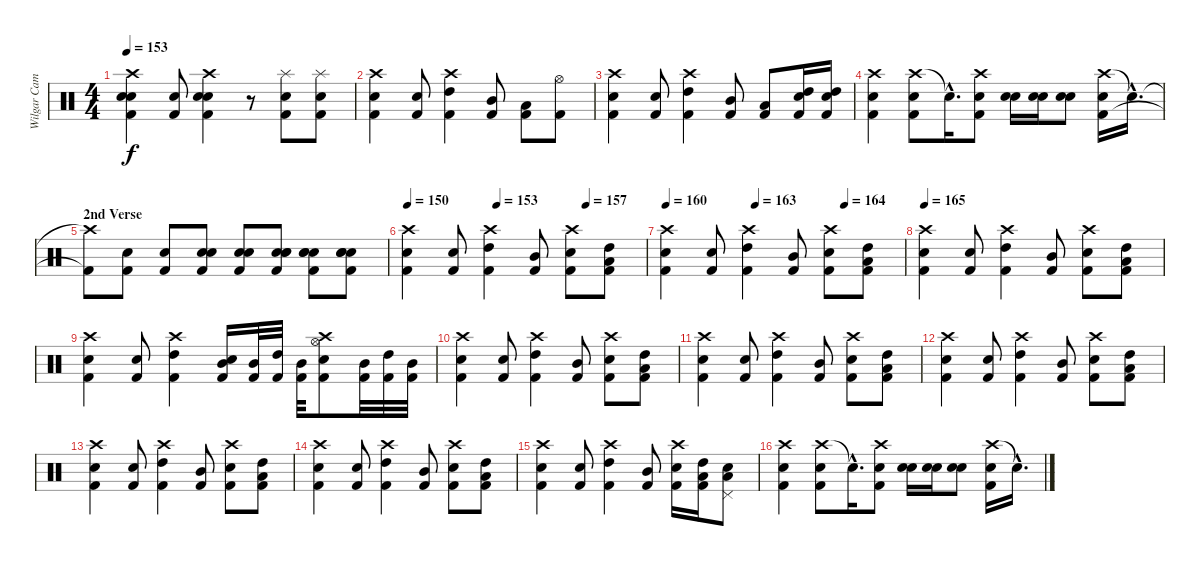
\track ("Wilgar Campbell" "Wilgar Cam") {instrument percussion}
\staff {score}
\articulation defaults
\ts (4 4)
\tempo 153
\clef neutral
\ks c
("Crash high (hit)" "Snare (hit) 2" "Snare (hit) 2" "Kick (hit) 2").4{dy f} ("Electric Snare (hit)" "Kick (hit) 2").8 ("Crash high (hit)" "Snare (hit) 2" "Snare (hit) 2" "Kick (hit) 2").4 r.8 ("Splash (hit)" "Kick (hit) 2" "Electric Snare (hit)").8 ("Splash (hit)" "Snare (hit) 2" "Kick (hit) 2").8 |
("Crash high (hit)" "Electric Snare (hit)" "Kick (hit) 2").4 ("Snare (hit) 2" "Kick (hit) 2").8 ("Crash high (hit)" "High Tom (hit)" "Kick (hit) 2").4 ("Mid Tom (hit)" "Kick (hit) 2").8 ("Low Tom (hit)" "Kick (hit) 2").8 ("Hi-Hat (open)" "Kick (hit) 2").8 |
("Crash high (hit)" "Electric Snare (hit)" "Kick (hit) 2").4 ("Snare (hit) 2" "Kick (hit) 2").8 ("Crash high (hit)" "High Tom (hit)" "Kick (hit) 2").4 ("Mid Tom (hit)" "Kick (hit) 2").8 ("Low Tom (hit)" "Kick (hit) 2").8 ("High Tom (hit)" "Electric Snare (hit)" "Kick (hit) 2").16 ("High Tom (hit)" "Electric Snare (hit)" "Kick (hit) 2").16 |
("Crash high (hit)" "Kick (hit) 2" "Snare (hit) 2").4 ("Crash high (hit)" "Kick (hit) 2" "Snare (hit) 2").8 "Snare (hit)"{hac t}.16{d} ("Crash high (hit)" "Electric Snare (hit)" "Kick (hit) 2").8 ("Snare (hit) 2" "Snare (hit) 2").16 ("Electric Snare (hit)" "Electric Snare (hit)").16 ("Snare (hit) 2" "Snare (hit) 2").8 ("Crash high (hit)" "Kick (hit) 2" "Electric Snare (hit)").16 "Snare (hit)"{hac t}.16{d} |
\section ("" "2nd Verse")
("Crash high (hit)"{t} "Kick (hit) 2"{t}).8 ("Kick (hit) 2" "Electric Snare (hit)").8 ("Kick (hit) 2" "Electric Snare (hit)").8 ("Kick (hit) 2" "Electric Snare (hit)" "Electric Snare (hit)").8 ("Kick (hit) 2" "Electric Snare (hit)" "Electric Snare (hit)").8 ("Kick (hit) 2" "Electric Snare (hit)" "Electric Snare (hit)" "Snare (hit) 2").8 ("Kick (hit) 2" "Electric Snare (hit)" "Electric Snare (hit)" "Snare (hit) 2").8 ("Kick (hit) 2" "Electric Snare (hit)" "Electric Snare (hit)" "Snare (hit) 2").8 |
\tempo 150
\tempo (153 0.375)
\tempo (157 0.75)
("Crash high (hit)" "Electric Snare (hit)" "Kick (hit) 2").4 ("Snare (hit) 2" "Kick (hit) 2").8 ("Crash high (hit)" "High Tom (hit)" "Kick (hit) 2").4 ("Mid Tom (hit)" "Kick (hit) 2").8 ("Crash high (hit)" "Electric Snare (hit)" "Kick (hit) 2").8 ("High Tom (hit)" "Kick (hit) 2" "Low Tom (hit)").8 |
\tempo 160
\tempo (163 0.375)
\tempo (164 0.75)
("Crash high (hit)" "Electric Snare (hit)" "Kick (hit) 2").4 ("Snare (hit) 2" "Kick (hit) 2").8 ("Crash high (hit)" "High Tom (hit)" "Kick (hit) 2").4 ("Mid Tom (hit)" "Kick (hit) 2").8 ("Crash high (hit)" "Electric Snare (hit)" "Kick (hit) 2").8 ("High Tom (hit)" "Kick (hit) 2" "Low Tom (hit)").8 |
\tempo 165
("Crash high (hit)" "Electric Snare (hit)" "Kick (hit) 2").4 ("Snare (hit) 2" "Kick (hit) 2").8 ("Crash high (hit)" "High Tom (hit)" "Kick (hit) 2").4 ("Mid Tom (hit)" "Kick (hit) 2").8 ("Crash high (hit)" "Electric Snare (hit)" "Kick (hit) 2").8 ("High Tom (hit)" "Kick (hit) 2" "Low Tom (hit)").8 |
("Crash high (hit)" "Electric Snare (hit)" "Kick (hit) 2").4 ("Snare (hit) 2" "Kick (hit) 2").8 ("Crash high (hit)" "High Tom (hit)" "Kick (hit) 2").4 ("Snare (hit) 2" "Mid Tom (hit)" "Kick (hit) 2").16 ("Mid Tom (hit)" "Kick (hit) 2").32 ("High Tom (hit)" "Kick (hit) 2").32 ("Mid Tom (hit)" "Kick (hit) 2").32 ("Crash high (hit)" "Electric Snare (hit)" "Hi-Hat (open)" "Kick (hit) 2").8 ("Mid Tom (hit)" "Kick (hit) 2").32 ("High Tom (hit)" "Kick (hit) 2").32 ("Mid Tom (hit)" "Kick (hit) 2").32 |
("Crash high (hit)" "Electric Snare (hit)" "Kick (hit) 2").4 ("Snare (hit) 2" "Kick (hit) 2").8 ("Crash high (hit)" "High Tom (hit)" "Kick (hit) 2").4 ("Mid Tom (hit)" "Kick (hit) 2").8 ("Crash high (hit)" "Electric Snare (hit)" "Kick (hit) 2").8 ("High Tom (hit)" "Kick (hit) 2" "Low Tom (hit)").8 |
("Crash high (hit)" "Electric Snare (hit)" "Kick (hit) 2").4 ("Snare (hit) 2" "Kick (hit) 2").8 ("Crash high (hit)" "High Tom (hit)" "Kick (hit) 2").4 ("Mid Tom (hit)" "Kick (hit) 2").8 ("Crash high (hit)" "Electric Snare (hit)" "Kick (hit) 2").8 ("High Tom (hit)" "Kick (hit) 2" "Low Tom (hit)").8 |
("Crash high (hit)" "Electric Snare (hit)" "Kick (hit) 2").4 ("Snare (hit) 2" "Kick (hit) 2").8 ("Crash high (hit)" "High Tom (hit)" "Kick (hit) 2").4 ("Mid Tom (hit)" "Kick (hit) 2").8 ("Crash high (hit)" "Electric Snare (hit)" "Kick (hit) 2").8 ("High Tom (hit)" "Kick (hit) 2" "Low Tom (hit)").8 |
("Crash high (hit)" "Electric Snare (hit)" "Kick (hit) 2").4 ("Snare (hit) 2" "Kick (hit) 2").8 ("Crash high (hit)" "High Tom (hit)" "Kick (hit) 2").4 ("Mid Tom (hit)" "Kick (hit) 2").8 ("Crash high (hit)" "Electric Snare (hit)" "Kick (hit) 2").8 ("High Tom (hit)" "Kick (hit) 2" "Low Tom (hit)").8 |
("Crash high (hit)" "Electric Snare (hit)" "Kick (hit) 2").4 ("Snare (hit) 2" "Kick (hit) 2").8 ("Crash high (hit)" "High Tom (hit)" "Kick (hit) 2").4 ("Mid Tom (hit)" "Kick (hit) 2").8 ("Crash high (hit)" "Electric Snare (hit)" "Kick (hit) 2").8 ("High Tom (hit)" "Kick (hit) 2" "Low Tom (hit)").8 |
("Crash high (hit)" "Electric Snare (hit)" "Kick (hit) 2").4 ("Snare (hit) 2" "Kick (hit) 2").8 ("Crash high (hit)" "High Tom (hit)" "Kick (hit) 2").4 ("Mid Tom (hit)" "Kick (hit) 2").8 ("Crash high (hit)" "Electric Snare (hit)" "Kick (hit) 2").16 ("High Tom (hit)" "Kick (hit) 2" "Low Tom (hit)").16 ("Low Tom (hit)" "Pedal Hi-Hat (hit)" "Electric Snare (hit)").8 |
("Crash high (hit)" "Kick (hit) 2" "Snare (hit) 2").4 ("Crash high (hit)" "Kick (hit) 2" "Snare (hit) 2").8 "Snare (hit)"{hac t}.16{d} ("Crash high (hit)" "Electric Snare (hit)" "Kick (hit) 2").8 ("Snare (hit) 2" "Snare (hit) 2").16 ("Electric Snare (hit)" "Electric Snare (hit)").16 ("Snare (hit) 2" "Snare (hit) 2").8 ("Crash high (hit)" "Kick (hit) 2" "Electric Snare (hit)").16 "Snare (hit)"{hac t}.16{d}
